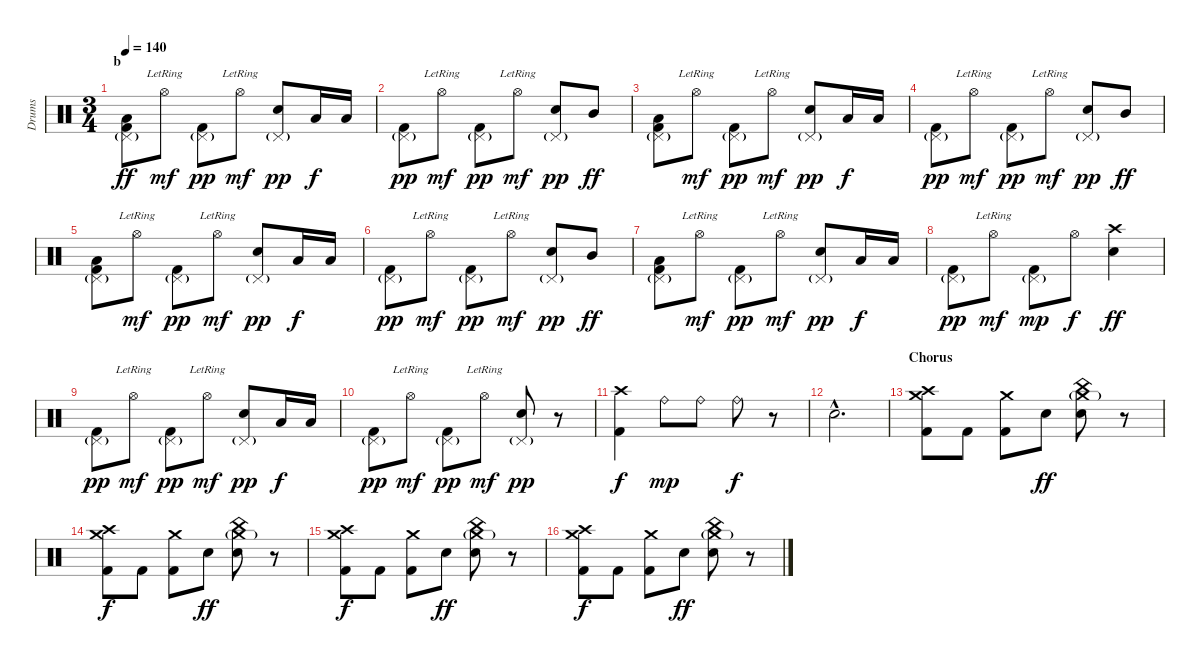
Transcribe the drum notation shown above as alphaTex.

\track ("Drums" "Drums") {instrument percussion}
\staff {score}
\articulation defaults
\ts (3 4)
\section ("" "b")
\tempo 140
\clef neutral
\ks c
("Pedal Hi-Hat (hit)"{g} "Low Tom (hit)" "Kick (hit) 2").8{dy ff} "Hi-Hat (open)"{lr}.8{dy mf} ("Pedal Hi-Hat (hit)"{g} "Kick (hit) 2").8{dy pp} "Hi-Hat (open)"{lr}.8{dy mf} ("Pedal Hi-Hat (hit)"{g} "Snare (hit) 2").8{dy pp} "Low Tom (hit)".16{dy f} "Low Tom (hit)".16 |
("Pedal Hi-Hat (hit)"{g} "Kick (hit) 2").8{dy pp} "Hi-Hat (open)"{lr}.8{dy mf} ("Pedal Hi-Hat (hit)"{g} "Kick (hit) 2").8{dy pp} "Hi-Hat (open)"{lr}.8{dy mf} ("Pedal Hi-Hat (hit)"{g} "Snare (hit) 2").8{dy pp} "Mid Tom (hit)".8{dy ff} |
("Pedal Hi-Hat (hit)"{g} "Low Tom (hit)" "Kick (hit) 2").8 "Hi-Hat (open)"{lr}.8{dy mf} ("Pedal Hi-Hat (hit)"{g} "Kick (hit) 2").8{dy pp} "Hi-Hat (open)"{lr}.8{dy mf} ("Pedal Hi-Hat (hit)"{g} "Snare (hit) 2").8{dy pp} "Low Tom (hit)".16{dy f} "Low Tom (hit)".16 |
("Pedal Hi-Hat (hit)"{g} "Kick (hit) 2").8{dy pp} "Hi-Hat (open)"{lr}.8{dy mf} ("Pedal Hi-Hat (hit)"{g} "Kick (hit) 2").8{dy pp} "Hi-Hat (open)"{lr}.8{dy mf} ("Pedal Hi-Hat (hit)"{g} "Snare (hit) 2").8{dy pp} "Mid Tom (hit)".8{dy ff} |
("Pedal Hi-Hat (hit)"{g} "Low Tom (hit)" "Kick (hit) 2").8 "Hi-Hat (open)"{lr}.8{dy mf} ("Pedal Hi-Hat (hit)"{g} "Kick (hit) 2").8{dy pp} "Hi-Hat (open)"{lr}.8{dy mf} ("Pedal Hi-Hat (hit)"{g} "Snare (hit) 2").8{dy pp} "Low Tom (hit)".16{dy f} "Low Tom (hit)".16 |
("Pedal Hi-Hat (hit)"{g} "Kick (hit) 2").8{dy pp} "Hi-Hat (open)"{lr}.8{dy mf} ("Pedal Hi-Hat (hit)"{g} "Kick (hit) 2").8{dy pp} "Hi-Hat (open)"{lr}.8{dy mf} ("Pedal Hi-Hat (hit)"{g} "Snare (hit) 2").8{dy pp} "Mid Tom (hit)".8{dy ff} |
("Pedal Hi-Hat (hit)"{g} "Low Tom (hit)" "Kick (hit) 2").8 "Hi-Hat (open)"{lr}.8{dy mf} ("Pedal Hi-Hat (hit)"{g} "Kick (hit) 2").8{dy pp} "Hi-Hat (open)"{lr}.8{dy mf} ("Pedal Hi-Hat (hit)"{g} "Snare (hit) 2").8{dy pp} "Low Tom (hit)".16{dy f} "Low Tom (hit)".16 |
("Pedal Hi-Hat (hit)"{g} "Kick (hit) 2").8{dy pp} "Hi-Hat (open)"{lr}.8{dy mf} ("Pedal Hi-Hat (hit)"{g} "Kick (hit) 2").8{dy mp} "Hi-Hat (open)".8{dy f} ("Crash high (hit)" "Snare (hit) 2").4{dy ff} |
("Pedal Hi-Hat (hit)"{g} "Kick (hit) 2").8{dy pp} "Hi-Hat (open)"{lr}.8{dy mf} ("Pedal Hi-Hat (hit)"{g} "Kick (hit) 2").8{dy pp} "Hi-Hat (open)"{lr}.8{dy mf} ("Pedal Hi-Hat (hit)"{g} "Snare (hit) 2").8{dy pp} "Low Tom (hit)".16{dy f} "Low Tom (hit)".16 |
("Pedal Hi-Hat (hit)"{g} "Kick (hit) 2").8{dy pp} "Hi-Hat (open)"{lr}.8{dy mf} ("Pedal Hi-Hat (hit)"{g} "Kick (hit) 2").8{dy pp} "Hi-Hat (open)"{lr}.8{dy mf} ("Pedal Hi-Hat (hit)"{g} "Snare (hit) 2").8{dy pp} r.8 |
("Crash high (hit)" "Kick (hit) 2").4{dy f} "Ride (bell)".8{dy mp} "Ride (bell)".8 "Ride (bell)".8{dy f} r.8 |
"Snare (hit) 2"{hac}.2{d} |
\section ("" "Chorus")
("Crash high (hit)" "Crash medium (hit)" "Kick (hit) 2").8 "Kick (hit) 2".8 ("Crash medium (hit)" "Kick (hit) 2").8 "Snare (hit) 2".8{dy ff} ("China (hit)" "Crash medium (hit)"{g} "Snare (hit) 2").8 r.8 |
("Crash high (hit)" "Crash medium (hit)" "Kick (hit) 2").8{dy f} "Kick (hit) 2".8 ("Crash medium (hit)" "Kick (hit) 2").8 "Snare (hit) 2".8{dy ff} ("China (hit)" "Crash medium (hit)"{g} "Snare (hit) 2").8 r.8 |
("Crash high (hit)" "Crash medium (hit)" "Kick (hit) 2").8{dy f} "Kick (hit) 2".8 ("Crash medium (hit)" "Kick (hit) 2").8 "Snare (hit) 2".8{dy ff} ("China (hit)" "Crash medium (hit)"{g} "Snare (hit) 2").8 r.8 |
("Crash high (hit)" "Crash medium (hit)" "Kick (hit) 2").8{dy f} "Kick (hit) 2".8 ("Crash medium (hit)" "Kick (hit) 2").8 "Snare (hit) 2".8{dy ff} ("China (hit)" "Crash medium (hit)"{g} "Snare (hit) 2").8 r.8
